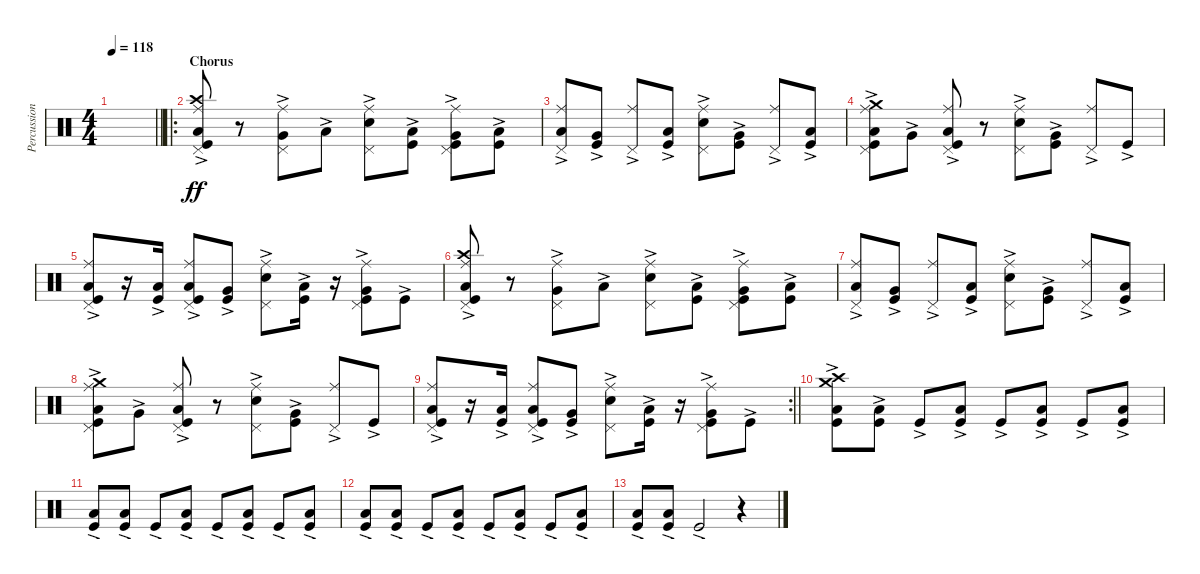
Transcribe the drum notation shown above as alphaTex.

\track ("Percussion" "Percussion") {instrument percussion}
\staff {score}
\articulation defaults
\ts (4 4)
\tempo 118
\clef neutral
\barLineRight lightlight
\ks c
|
\ro
\section ("" "Chorus")
("Low Floor Tom (hit)"{ac} "Crash high (hit)"{ac} "Ride (middle)"{ac} "Pedal Hi-Hat (hit)"{ac} "Kick (hit)"{ac}).8{dy ff} r.8 ("Ride (middle)"{ac} "Pedal Hi-Hat (hit)"{ac} "Very Low Tom (hit)"{ac}).8 "Low Floor Tom (hit)"{ac}.8 ("Pedal Hi-Hat (hit)"{ac} "Ride (middle)"{ac} "Electric Snare (hit)"{ac}).8 ("Low Floor Tom (hit)"{ac} "Kick (hit)"{ac}).8 ("Very Low Tom (hit)"{ac} "Ride (middle)"{ac} "Pedal Hi-Hat (hit)"{ac} "Kick (hit)"{ac}).8 ("Low Floor Tom (hit)"{ac} "Kick (hit)"{ac}).8 |
("Ride (middle)"{ac} "Pedal Hi-Hat (hit)"{ac} "Low Floor Tom (hit)"{ac}).8 ("Very Low Tom (hit)"{ac} "Kick (hit)"{ac}).8 ("Ride (middle)"{ac} "Pedal Hi-Hat (hit)"{ac}).8 ("Low Floor Tom (hit)"{ac} "Kick (hit)"{ac}).8 ("Pedal Hi-Hat (hit)"{ac} "Ride (middle)"{ac} "Electric Snare (hit)"{ac}).8 ("Very Low Tom (hit)"{ac} "Kick (hit)"{ac}).8 ("Ride (middle)"{ac} "Pedal Hi-Hat (hit)"{ac}).8 ("Low Floor Tom (hit)"{ac} "Kick (hit)"{ac}).8 |
("Low Floor Tom (hit)"{ac} "Crash medium (hit)"{ac} "Ride (middle)"{ac} "Pedal Hi-Hat (hit)"{ac} "Kick (hit)"{ac}).8 "Very Low Tom (hit)"{ac}.8 ("Low Floor Tom (hit)"{ac} "Ride (middle)"{ac} "Pedal Hi-Hat (hit)"{ac} "Kick (hit)"{ac}).8 r.8 ("Pedal Hi-Hat (hit)"{ac} "Ride (middle)"{ac} "Electric Snare (hit)"{ac}).8 ("Very Low Tom (hit)"{ac} "Kick (hit)"{ac}).8 ("Ride (middle)"{ac} "Pedal Hi-Hat (hit)"{ac}).8 "Kick (hit)"{ac}.8 |
("Low Floor Tom (hit)"{ac} "Ride (middle)"{ac} "Pedal Hi-Hat (hit)"{ac} "Kick (hit)"{ac}).8 r.16 ("Low Floor Tom (hit)"{ac} "Kick (hit)"{ac}).16 ("Low Floor Tom (hit)"{ac} "Ride (middle)"{ac} "Pedal Hi-Hat (hit)"{ac} "Kick (hit)"{ac}).8 ("Very Low Tom (hit)"{ac} "Kick (hit)"{ac}).8 ("Pedal Hi-Hat (hit)"{ac} "Ride (middle)"{ac} "Electric Snare (hit)"{ac}).8 ("Low Floor Tom (hit)"{ac} "Kick (hit)"{ac}).16 r.16 ("Very Low Tom (hit)"{ac} "Ride (middle)"{ac} "Pedal Hi-Hat (hit)"{ac} "Kick (hit)"{ac}).8 "Kick (hit)"{ac}.8 |
("Low Floor Tom (hit)"{ac} "Crash high (hit)"{ac} "Ride (middle)"{ac} "Pedal Hi-Hat (hit)"{ac} "Kick (hit)"{ac}).8 r.8 ("Ride (middle)"{ac} "Pedal Hi-Hat (hit)"{ac} "Very Low Tom (hit)"{ac}).8 "Low Floor Tom (hit)"{ac}.8 ("Pedal Hi-Hat (hit)"{ac} "Ride (middle)"{ac} "Electric Snare (hit)"{ac}).8 ("Low Floor Tom (hit)"{ac} "Kick (hit)"{ac}).8 ("Very Low Tom (hit)"{ac} "Ride (middle)"{ac} "Pedal Hi-Hat (hit)"{ac} "Kick (hit)"{ac}).8 ("Low Floor Tom (hit)"{ac} "Kick (hit)"{ac}).8 |
("Ride (middle)"{ac} "Pedal Hi-Hat (hit)"{ac} "Low Floor Tom (hit)"{ac}).8 ("Very Low Tom (hit)"{ac} "Kick (hit)"{ac}).8 ("Ride (middle)"{ac} "Pedal Hi-Hat (hit)"{ac}).8 ("Low Floor Tom (hit)"{ac} "Kick (hit)"{ac}).8 ("Pedal Hi-Hat (hit)"{ac} "Ride (middle)"{ac} "Electric Snare (hit)"{ac}).8 ("Very Low Tom (hit)"{ac} "Kick (hit)"{ac}).8 ("Ride (middle)"{ac} "Pedal Hi-Hat (hit)"{ac}).8 ("Low Floor Tom (hit)"{ac} "Kick (hit)"{ac}).8 |
("Low Floor Tom (hit)"{ac} "Crash medium (hit)"{ac} "Ride (middle)"{ac} "Pedal Hi-Hat (hit)"{ac} "Kick (hit)"{ac}).8 "Very Low Tom (hit)"{ac}.8 ("Low Floor Tom (hit)"{ac} "Ride (middle)"{ac} "Pedal Hi-Hat (hit)"{ac} "Kick (hit)"{ac}).8 r.8 ("Pedal Hi-Hat (hit)"{ac} "Ride (middle)"{ac} "Electric Snare (hit)"{ac}).8 ("Very Low Tom (hit)"{ac} "Kick (hit)"{ac}).8 ("Ride (middle)"{ac} "Pedal Hi-Hat (hit)"{ac}).8 "Kick (hit)"{ac}.8 |
\rc 2
\barLineRight lightlight
("Low Floor Tom (hit)"{ac} "Ride (middle)"{ac} "Pedal Hi-Hat (hit)"{ac} "Kick (hit)"{ac}).8 r.16 ("Low Floor Tom (hit)"{ac} "Kick (hit)"{ac}).16 ("Low Floor Tom (hit)"{ac} "Ride (middle)"{ac} "Pedal Hi-Hat (hit)"{ac} "Kick (hit)"{ac}).8 ("Very Low Tom (hit)"{ac} "Kick (hit)"{ac}).8 ("Pedal Hi-Hat (hit)"{ac} "Ride (middle)"{ac} "Electric Snare (hit)"{ac}).8 ("Low Floor Tom (hit)"{ac} "Kick (hit)"{ac}).16 r.16 ("Very Low Tom (hit)"{ac} "Ride (middle)"{ac} "Pedal Hi-Hat (hit)"{ac} "Kick (hit)"{ac}).8 "Kick (hit)"{ac}.8 |
("Crash medium (hit)" "Crash high (hit)" "Low Floor Tom (hit)"{ac} "Kick (hit)"{ac}).8 ("Low Floor Tom (hit)"{ac} "Kick (hit)"{ac}).8 "Kick (hit)"{ac}.8 ("Low Floor Tom (hit)"{ac} "Kick (hit)"{ac}).8 "Kick (hit)"{ac}.8 ("Low Floor Tom (hit)"{ac} "Kick (hit)"{ac}).8 "Kick (hit)"{ac}.8 ("Low Floor Tom (hit)"{ac} "Kick (hit)"{ac}).8 |
("Low Floor Tom (hit)"{ac} "Kick (hit)"{ac}).8 ("Low Floor Tom (hit)"{ac} "Kick (hit)"{ac}).8 "Kick (hit)"{ac}.8 ("Low Floor Tom (hit)"{ac} "Kick (hit)"{ac}).8 "Kick (hit)"{ac}.8 ("Low Floor Tom (hit)"{ac} "Kick (hit)"{ac}).8 "Kick (hit)"{ac}.8 ("Low Floor Tom (hit)"{ac} "Kick (hit)"{ac}).8 |
("Low Floor Tom (hit)"{ac} "Kick (hit)"{ac}).8 ("Low Floor Tom (hit)"{ac} "Kick (hit)"{ac}).8 "Kick (hit)"{ac}.8 ("Low Floor Tom (hit)"{ac} "Kick (hit)"{ac}).8 "Kick (hit)"{ac}.8 ("Low Floor Tom (hit)"{ac} "Kick (hit)"{ac}).8 "Kick (hit)"{ac}.8 ("Low Floor Tom (hit)"{ac} "Kick (hit)"{ac}).8 |
("Low Floor Tom (hit)"{ac} "Kick (hit)"{ac}).8 ("Low Floor Tom (hit)"{ac} "Kick (hit)"{ac}).8 "Kick (hit)"{ac}.2 r.4
